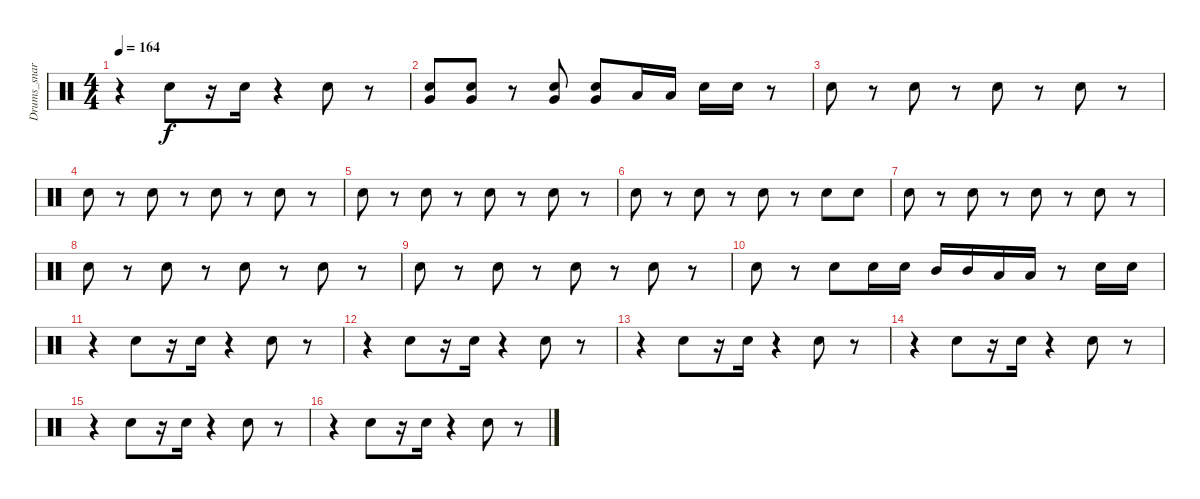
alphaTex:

\track ("Drums_snare&tom" "Drums_snar") {instrument percussion}
\staff {score}
\articulation defaults
\ts (4 4)
\tempo 164
\clef neutral
\ks c
r.4{dy f} "Snare (hit) 2".8 r.16 "Snare (hit) 2".16 r.4 "Snare (hit) 2".8 r.8 |
("Snare (hit) 2" "Very Low Tom (hit)").8 ("Snare (hit) 2" "Very Low Tom (hit)").8 r.8 ("Snare (hit) 2" "Very Low Tom (hit)").8 ("Snare (hit) 2" "Very Low Tom (hit)").8 "Low Tom (hit)".16 "Low Tom (hit)".16 "Snare (hit) 2".16 "Snare (hit) 2".16 r.8 |
"Snare (hit) 2".8 r.8 "Snare (hit) 2".8 r.8 "Snare (hit) 2".8 r.8 "Snare (hit) 2".8 r.8 |
"Snare (hit) 2".8 r.8 "Snare (hit) 2".8 r.8 "Snare (hit) 2".8 r.8 "Snare (hit) 2".8 r.8 |
"Snare (hit) 2".8 r.8 "Snare (hit) 2".8 r.8 "Snare (hit) 2".8 r.8 "Snare (hit) 2".8 r.8 |
"Snare (hit) 2".8 r.8 "Snare (hit) 2".8 r.8 "Snare (hit) 2".8 r.8 "Snare (hit) 2".8 "Snare (hit) 2".8 |
"Snare (hit) 2".8 r.8 "Snare (hit) 2".8 r.8 "Snare (hit) 2".8 r.8 "Snare (hit) 2".8 r.8 |
"Snare (hit) 2".8 r.8 "Snare (hit) 2".8 r.8 "Snare (hit) 2".8 r.8 "Snare (hit) 2".8 r.8 |
"Snare (hit) 2".8 r.8 "Snare (hit) 2".8 r.8 "Snare (hit) 2".8 r.8 "Snare (hit) 2".8 r.8 |
"Snare (hit) 2".8 r.8 "Snare (hit) 2".8 "Snare (hit) 2".16 "Snare (hit) 2".16 "Mid Tom (hit)".16 "Mid Tom (hit)".16 "Low Tom (hit)".16 "Low Tom (hit)".16 r.8 "Snare (hit) 2".16 "Snare (hit) 2".16 |
r.4 "Snare (hit) 2".8 r.16 "Snare (hit) 2".16 r.4 "Snare (hit) 2".8 r.8 |
r.4 "Snare (hit) 2".8 r.16 "Snare (hit) 2".16 r.4 "Snare (hit) 2".8 r.8 |
r.4 "Snare (hit) 2".8 r.16 "Snare (hit) 2".16 r.4 "Snare (hit) 2".8 r.8 |
r.4 "Snare (hit) 2".8 r.16 "Snare (hit) 2".16 r.4 "Snare (hit) 2".8 r.8 |
r.4 "Snare (hit) 2".8 r.16 "Snare (hit) 2".16 r.4 "Snare (hit) 2".8 r.8 |
r.4 "Snare (hit) 2".8 r.16 "Snare (hit) 2".16 r.4 "Snare (hit) 2".8 r.8
